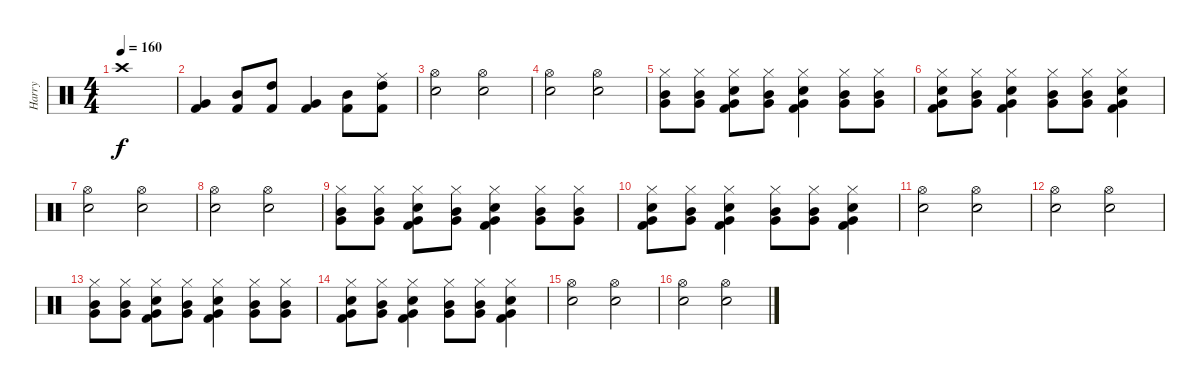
\track ("Harry" "Harry") {instrument percussion}
\staff {score}
\articulation defaults
\ts (4 4)
\tempo 160
\clef neutral
\ks c "Crash high (hit)".1{dy f}
|
("Kick (hit) 2" "Very Low Tom (hit)").4 ("Kick (hit) 2" "Mid Tom (hit)").8 ("Kick (hit) 2" "High Tom (hit)").8 ("Kick (hit) 2" "Very Low Tom (hit)").4 ("Kick (hit) 2" "Mid Tom (hit)").8 ("Ride (middle)" "Kick (hit) 2" "High Tom (hit)").8 |
("Hi-Hat (open)" "Snare (hit) 2").2 ("Hi-Hat (open)" "Snare (hit) 2").2 |
("Hi-Hat (open)" "Snare (hit) 2").2 ("Hi-Hat (open)" "Snare (hit) 2").2 |
("Hi-Hat (closed)" "Very Low Tom (hit)" "Mid Tom (hit)").8 ("Hi-Hat (closed)" "Very Low Tom (hit)" "Mid Tom (hit)").8 ("Hi-Hat (closed)" "Very Low Tom (hit)" "Kick (hit) 2" "Snare (hit) 2").8 ("Hi-Hat (closed)" "Mid Tom (hit)" "Very Low Tom (hit)").8 ("Hi-Hat (closed)" "Very Low Tom (hit)" "Kick (hit) 2" "Snare (hit) 2").4 ("Hi-Hat (closed)" "Very Low Tom (hit)" "Mid Tom (hit)").8 ("Hi-Hat (closed)" "Very Low Tom (hit)" "Mid Tom (hit)").8 |
("Hi-Hat (closed)" "Very Low Tom (hit)" "Kick (hit) 2" "Snare (hit) 2").8 ("Hi-Hat (closed)" "Mid Tom (hit)" "Very Low Tom (hit)").8 ("Hi-Hat (closed)" "Very Low Tom (hit)" "Kick (hit) 2" "Snare (hit) 2").4 ("Hi-Hat (closed)" "Very Low Tom (hit)" "Mid Tom (hit)").8 ("Hi-Hat (closed)" "Very Low Tom (hit)" "Mid Tom (hit)").8 ("Hi-Hat (closed)" "Very Low Tom (hit)" "Kick (hit) 2" "Snare (hit) 2").4 |
("Hi-Hat (open)" "Snare (hit) 2").2 ("Hi-Hat (open)" "Snare (hit) 2").2 |
("Hi-Hat (open)" "Snare (hit) 2").2 ("Hi-Hat (open)" "Snare (hit) 2").2 |
("Hi-Hat (closed)" "Very Low Tom (hit)" "Mid Tom (hit)").8 ("Hi-Hat (closed)" "Very Low Tom (hit)" "Mid Tom (hit)").8 ("Hi-Hat (closed)" "Very Low Tom (hit)" "Kick (hit) 2" "Snare (hit) 2").8 ("Hi-Hat (closed)" "Mid Tom (hit)" "Very Low Tom (hit)").8 ("Hi-Hat (closed)" "Very Low Tom (hit)" "Kick (hit) 2" "Snare (hit) 2").4 ("Hi-Hat (closed)" "Very Low Tom (hit)" "Mid Tom (hit)").8 ("Hi-Hat (closed)" "Very Low Tom (hit)" "Mid Tom (hit)").8 |
("Hi-Hat (closed)" "Very Low Tom (hit)" "Kick (hit) 2" "Snare (hit) 2").8 ("Hi-Hat (closed)" "Mid Tom (hit)" "Very Low Tom (hit)").8 ("Hi-Hat (closed)" "Very Low Tom (hit)" "Kick (hit) 2" "Snare (hit) 2").4 ("Hi-Hat (closed)" "Very Low Tom (hit)" "Mid Tom (hit)").8 ("Hi-Hat (closed)" "Very Low Tom (hit)" "Mid Tom (hit)").8 ("Hi-Hat (closed)" "Very Low Tom (hit)" "Kick (hit) 2" "Snare (hit) 2").4 |
("Hi-Hat (open)" "Snare (hit) 2").2 ("Hi-Hat (open)" "Snare (hit) 2").2 |
("Hi-Hat (open)" "Snare (hit) 2").2 ("Hi-Hat (open)" "Snare (hit) 2").2 |
("Hi-Hat (closed)" "Very Low Tom (hit)" "Mid Tom (hit)").8 ("Hi-Hat (closed)" "Very Low Tom (hit)" "Mid Tom (hit)").8 ("Hi-Hat (closed)" "Very Low Tom (hit)" "Kick (hit) 2" "Snare (hit) 2").8 ("Hi-Hat (closed)" "Mid Tom (hit)" "Very Low Tom (hit)").8 ("Hi-Hat (closed)" "Very Low Tom (hit)" "Kick (hit) 2" "Snare (hit) 2").4 ("Hi-Hat (closed)" "Very Low Tom (hit)" "Mid Tom (hit)").8 ("Hi-Hat (closed)" "Very Low Tom (hit)" "Mid Tom (hit)").8 |
("Hi-Hat (closed)" "Very Low Tom (hit)" "Kick (hit) 2" "Snare (hit) 2").8 ("Hi-Hat (closed)" "Mid Tom (hit)" "Very Low Tom (hit)").8 ("Hi-Hat (closed)" "Very Low Tom (hit)" "Kick (hit) 2" "Snare (hit) 2").4 ("Hi-Hat (closed)" "Very Low Tom (hit)" "Mid Tom (hit)").8 ("Hi-Hat (closed)" "Very Low Tom (hit)" "Mid Tom (hit)").8 ("Hi-Hat (closed)" "Very Low Tom (hit)" "Kick (hit) 2" "Snare (hit) 2").4 |
("Hi-Hat (open)" "Snare (hit) 2").2 ("Hi-Hat (open)" "Snare (hit) 2").2 |
("Hi-Hat (open)" "Snare (hit) 2").2 ("Hi-Hat (open)" "Snare (hit) 2").2
